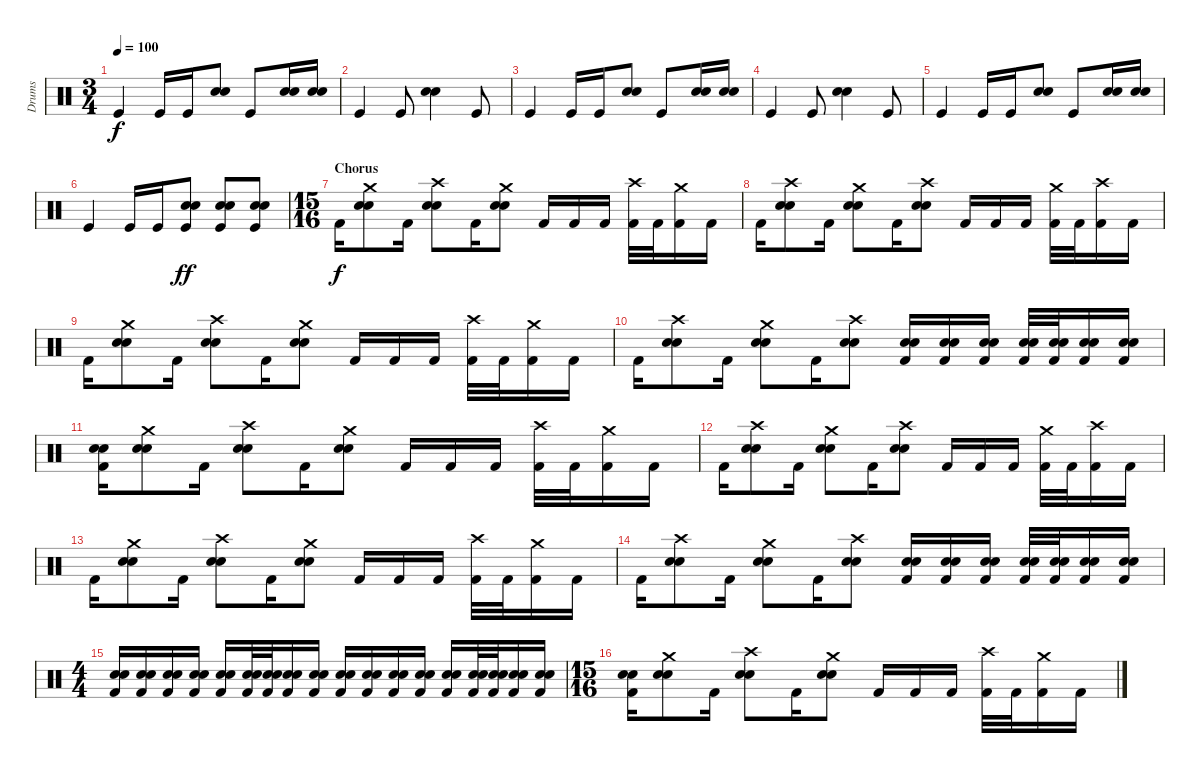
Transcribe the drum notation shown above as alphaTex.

\track ("Drums" "Drums") {instrument percussion}
\staff {score}
\articulation defaults
\ts (3 4)
\tempo 100
\clef neutral
\ks c "Kick (hit)".4{dy f} "Kick (hit)".16 "Kick (hit)".16
("Snare (hit) 2" "Electric Snare (hit)").8 "Kick (hit)".8 ("Snare (hit) 2" "Electric Snare (hit)").16 ("Snare (hit) 2" "Electric Snare (hit)").16 |
"Kick (hit)".4 "Kick (hit)".8 ("Snare (hit) 2" "Electric Snare (hit)").4 "Kick (hit)".8 |
"Kick (hit)".4 "Kick (hit)".16 "Kick (hit)".16 ("Snare (hit) 2" "Electric Snare (hit)").8 "Kick (hit)".8 ("Snare (hit) 2" "Electric Snare (hit)").16 ("Snare (hit) 2" "Electric Snare (hit)").16 |
"Kick (hit)".4 "Kick (hit)".8 ("Snare (hit) 2" "Electric Snare (hit)").4 "Kick (hit)".8 |
"Kick (hit)".4 "Kick (hit)".16 "Kick (hit)".16 ("Snare (hit) 2" "Electric Snare (hit)").8 "Kick (hit)".8 ("Snare (hit) 2" "Electric Snare (hit)").16 ("Snare (hit) 2" "Electric Snare (hit)").16 |
"Kick (hit)".4 "Kick (hit)".16 "Kick (hit)".16 ("Snare (hit) 2" "Electric Snare (hit)" "Kick (hit)").8{dy ff} ("Snare (hit) 2" "Electric Snare (hit)" "Kick (hit)").8 ("Snare (hit) 2" "Electric Snare (hit)" "Kick (hit)").8 |
\ts (15 16)
\section ("" "Chorus")
"Kick (hit) 2".16{dy f} ("Crash medium (hit)" "Snare (hit) 2" "Electric Snare (hit)").8 "Kick (hit) 2".16 ("Crash high (hit)" "Snare (hit) 2" "Electric Snare (hit)").8 "Kick (hit) 2".16 ("Crash medium (hit)" "Snare (hit) 2" "Electric Snare (hit)").8 "Kick (hit) 2".16 "Kick (hit) 2".16 "Kick (hit) 2".16 ("Crash high (hit)" "Kick (hit) 2").32 "Kick (hit) 2".32 ("Crash medium (hit)" "Kick (hit) 2").16 "Kick (hit) 2".16 |
"Kick (hit) 2".16 ("Crash high (hit)" "Snare (hit) 2" "Electric Snare (hit)").8 "Kick (hit) 2".16 ("Crash medium (hit)" "Snare (hit) 2" "Electric Snare (hit)").8 "Kick (hit) 2".16 ("Crash high (hit)" "Snare (hit) 2" "Electric Snare (hit)").8 "Kick (hit) 2".16 "Kick (hit) 2".16 "Kick (hit) 2".16 ("Crash medium (hit)" "Kick (hit) 2").32 "Kick (hit) 2".32 ("Crash high (hit)" "Kick (hit) 2").16 "Kick (hit) 2".16 |
"Kick (hit) 2".16 ("Crash medium (hit)" "Snare (hit) 2" "Electric Snare (hit)").8 "Kick (hit) 2".16 ("Crash high (hit)" "Snare (hit) 2" "Electric Snare (hit)").8 "Kick (hit) 2".16 ("Crash medium (hit)" "Snare (hit) 2" "Electric Snare (hit)").8 "Kick (hit) 2".16 "Kick (hit) 2".16 "Kick (hit) 2".16 ("Crash high (hit)" "Kick (hit) 2").32 "Kick (hit) 2".32 ("Crash medium (hit)" "Kick (hit) 2").16 "Kick (hit) 2".16 |
"Kick (hit) 2".16 ("Crash high (hit)" "Snare (hit) 2" "Electric Snare (hit)").8 "Kick (hit) 2".16 ("Crash medium (hit)" "Snare (hit) 2" "Electric Snare (hit)").8 "Kick (hit) 2".16 ("Crash high (hit)" "Snare (hit) 2" "Electric Snare (hit)").8 ("Snare (hit) 2" "Electric Snare (hit)" "Kick (hit) 2").16 ("Snare (hit) 2" "Electric Snare (hit)" "Kick (hit) 2").16 ("Snare (hit) 2" "Electric Snare (hit)" "Kick (hit) 2").16 ("Snare (hit) 2" "Electric Snare (hit)" "Kick (hit) 2").32 ("Snare (hit) 2" "Electric Snare (hit)" "Kick (hit) 2").32 ("Snare (hit) 2" "Electric Snare (hit)" "Kick (hit) 2").16 ("Snare (hit) 2" "Electric Snare (hit)" "Kick (hit) 2").16 |
("Snare (hit) 2" "Electric Snare (hit)" "Kick (hit) 2").16 ("Crash medium (hit)" "Snare (hit) 2" "Electric Snare (hit)").8 "Kick (hit) 2".16 ("Crash high (hit)" "Snare (hit) 2" "Electric Snare (hit)").8 "Kick (hit) 2".16 ("Crash medium (hit)" "Snare (hit) 2" "Electric Snare (hit)").8 "Kick (hit) 2".16 "Kick (hit) 2".16 "Kick (hit) 2".16 ("Crash high (hit)" "Kick (hit) 2").32 "Kick (hit) 2".32 ("Crash medium (hit)" "Kick (hit) 2").16 "Kick (hit) 2".16 |
"Kick (hit) 2".16 ("Crash high (hit)" "Snare (hit) 2" "Electric Snare (hit)").8 "Kick (hit) 2".16 ("Crash medium (hit)" "Snare (hit) 2" "Electric Snare (hit)").8 "Kick (hit) 2".16 ("Crash high (hit)" "Snare (hit) 2" "Electric Snare (hit)").8 "Kick (hit) 2".16 "Kick (hit) 2".16 "Kick (hit) 2".16 ("Crash medium (hit)" "Kick (hit) 2").32 "Kick (hit) 2".32 ("Crash high (hit)" "Kick (hit) 2").16 "Kick (hit) 2".16 |
"Kick (hit) 2".16 ("Crash medium (hit)" "Snare (hit) 2" "Electric Snare (hit)").8 "Kick (hit) 2".16 ("Crash high (hit)" "Snare (hit) 2" "Electric Snare (hit)").8 "Kick (hit) 2".16 ("Crash medium (hit)" "Snare (hit) 2" "Electric Snare (hit)").8 "Kick (hit) 2".16 "Kick (hit) 2".16 "Kick (hit) 2".16 ("Crash high (hit)" "Kick (hit) 2").32 "Kick (hit) 2".32 ("Crash medium (hit)" "Kick (hit) 2").16 "Kick (hit) 2".16 |
"Kick (hit) 2".16 ("Crash high (hit)" "Snare (hit) 2" "Electric Snare (hit)").8 "Kick (hit) 2".16 ("Crash medium (hit)" "Snare (hit) 2" "Electric Snare (hit)").8 "Kick (hit) 2".16 ("Crash high (hit)" "Snare (hit) 2" "Electric Snare (hit)").8 ("Snare (hit) 2" "Electric Snare (hit)" "Kick (hit) 2").16 ("Snare (hit) 2" "Electric Snare (hit)" "Kick (hit) 2").16 ("Snare (hit) 2" "Electric Snare (hit)" "Kick (hit) 2").16 ("Snare (hit) 2" "Electric Snare (hit)" "Kick (hit) 2").32 ("Snare (hit) 2" "Electric Snare (hit)" "Kick (hit) 2").32 ("Snare (hit) 2" "Electric Snare (hit)" "Kick (hit) 2").16 ("Snare (hit) 2" "Electric Snare (hit)" "Kick (hit) 2").16 |
\ts (4 4)
("Snare (hit) 2" "Electric Snare (hit)" "Kick (hit) 2").16 ("Snare (hit) 2" "Electric Snare (hit)" "Kick (hit) 2").16 ("Snare (hit) 2" "Electric Snare (hit)" "Kick (hit) 2").16 ("Snare (hit) 2" "Electric Snare (hit)" "Kick (hit) 2").16 ("Snare (hit) 2" "Electric Snare (hit)" "Kick (hit) 2").16 ("Snare (hit) 2" "Electric Snare (hit)" "Kick (hit) 2").32 ("Snare (hit) 2" "Electric Snare (hit)" "Kick (hit) 2").32 ("Snare (hit) 2" "Electric Snare (hit)" "Kick (hit) 2").16 ("Snare (hit) 2" "Electric Snare (hit)" "Kick (hit) 2").16 ("Snare (hit) 2" "Electric Snare (hit)" "Kick (hit) 2").16 ("Snare (hit) 2" "Electric Snare (hit)" "Kick (hit) 2").16 ("Snare (hit) 2" "Electric Snare (hit)" "Kick (hit) 2").16 ("Snare (hit) 2" "Electric Snare (hit)" "Kick (hit) 2").16 ("Snare (hit) 2" "Electric Snare (hit)" "Kick (hit) 2").16 ("Snare (hit) 2" "Electric Snare (hit)" "Kick (hit) 2").32 ("Snare (hit) 2" "Electric Snare (hit)" "Kick (hit) 2").32 ("Snare (hit) 2" "Electric Snare (hit)" "Kick (hit) 2").16 ("Snare (hit) 2" "Electric Snare (hit)" "Kick (hit) 2").16 |
\ts (15 16)
("Snare (hit) 2" "Electric Snare (hit)" "Kick (hit) 2").16 ("Crash medium (hit)" "Snare (hit) 2" "Electric Snare (hit)").8 "Kick (hit) 2".16 ("Crash high (hit)" "Snare (hit) 2" "Electric Snare (hit)").8 "Kick (hit) 2".16 ("Crash medium (hit)" "Snare (hit) 2" "Electric Snare (hit)").8 "Kick (hit) 2".16 "Kick (hit) 2".16 "Kick (hit) 2".16 ("Crash high (hit)" "Kick (hit) 2").32 "Kick (hit) 2".32 ("Crash medium (hit)" "Kick (hit) 2").16 "Kick (hit) 2".16
